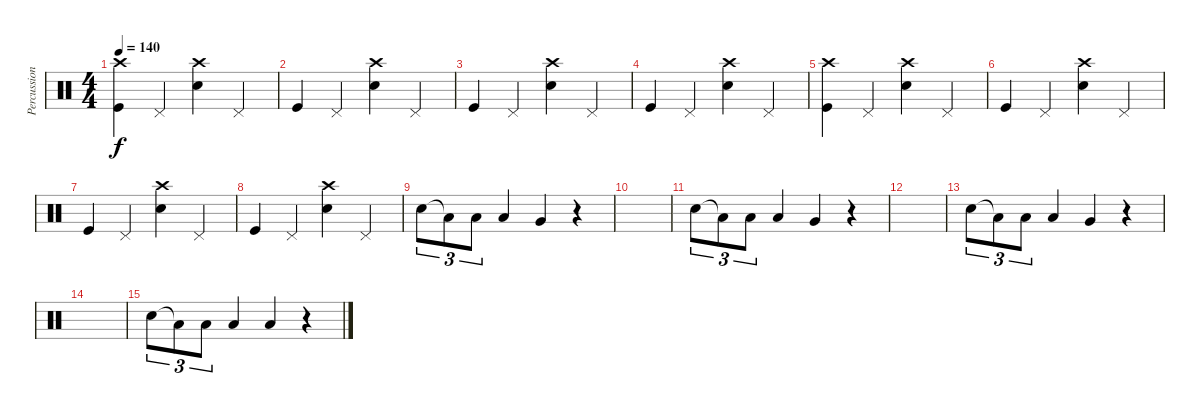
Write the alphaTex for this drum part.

\track ("Percussion" "Percussion") {instrument percussion}
\staff {score}
\articulation defaults
\ts (4 4)
\tempo 140
\clef neutral
\ks c
("Crash high (hit)" "Kick (hit)").4{dy f} "Pedal Hi-Hat (hit)".4 ("Crash high (hit)" "Snare (hit) 2").4 "Pedal Hi-Hat (hit)".4 |
"Kick (hit)".4 "Pedal Hi-Hat (hit)".4 ("Crash high (hit)" "Snare (hit) 2").4 "Pedal Hi-Hat (hit)".4 |
"Kick (hit)".4 "Pedal Hi-Hat (hit)".4 ("Crash high (hit)" "Snare (hit) 2").4 "Pedal Hi-Hat (hit)".4 |
"Kick (hit)".4 "Pedal Hi-Hat (hit)".4 ("Crash high (hit)" "Snare (hit) 2").4 "Pedal Hi-Hat (hit)".4 |
("Crash high (hit)" "Kick (hit)").4 "Pedal Hi-Hat (hit)".4 ("Crash high (hit)" "Snare (hit) 2").4 "Pedal Hi-Hat (hit)".4 |
"Kick (hit)".4 "Pedal Hi-Hat (hit)".4 ("Crash high (hit)" "Snare (hit) 2").4 "Pedal Hi-Hat (hit)".4 |
"Kick (hit)".4 "Pedal Hi-Hat (hit)".4 ("Crash high (hit)" "Snare (hit) 2").4 "Pedal Hi-Hat (hit)".4 |
"Kick (hit)".4 "Pedal Hi-Hat (hit)".4 ("Crash high (hit)" "Snare (hit) 2").4 "Pedal Hi-Hat (hit)".4 |
"Snare (hit) 2".8{tu (3 2)} "Low Tom (hit)"{t}.8{tu (3 2)} "Low Tom (hit)".8{tu (3 2)} "Low Tom (hit)".4 "Very Low Tom (hit)".4 r.4 |
|
"Snare (hit) 2".8{tu (3 2)} "Low Tom (hit)"{t}.8{tu (3 2)} "Low Tom (hit)".8{tu (3 2)} "Low Tom (hit)".4 "Very Low Tom (hit)".4 r.4 |
|
"Snare (hit) 2".8{tu (3 2)} "Low Tom (hit)"{t}.8{tu (3 2)} "Low Tom (hit)".8{tu (3 2)} "Low Tom (hit)".4 "Very Low Tom (hit)".4 r.4 |
|
"Snare (hit) 2".8{tu (3 2)} "Low Tom (hit)"{t}.8{tu (3 2)} "Low Tom (hit)".8{tu (3 2)} "Low Tom (hit)".4 "Low Tom (hit)".4 r.4
